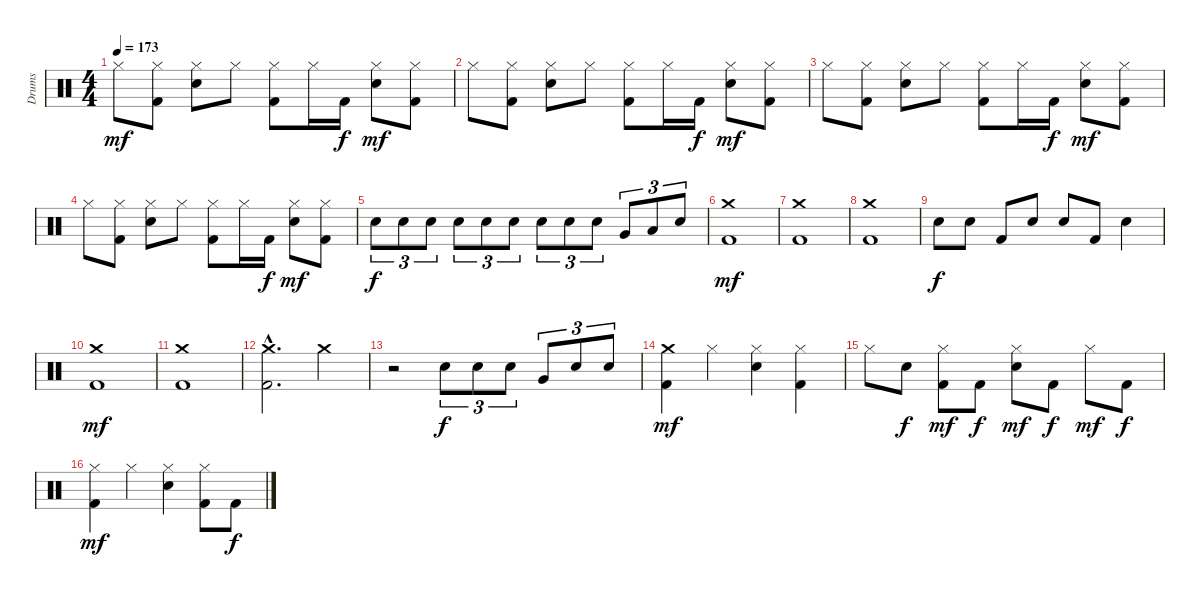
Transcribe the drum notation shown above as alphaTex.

\track ("Drums" "Drums") {instrument percussion}
\staff {score}
\articulation defaults
\ts (4 4)
\tempo 173
\clef neutral
\ks c "Hi-Hat (closed)".8{dy mf}
("Hi-Hat (closed)" "Kick (hit) 2").8 ("Hi-Hat (closed)" "Electric Snare (hit)").8 "Hi-Hat (closed)".8 ("Hi-Hat (closed)" "Kick (hit) 2").8 "Hi-Hat (closed)".16 "Kick (hit) 2".16{dy f} ("Hi-Hat (closed)" "Electric Snare (hit)").8{dy mf} ("Hi-Hat (closed)" "Kick (hit) 2").8 |
"Hi-Hat (closed)".8 ("Hi-Hat (closed)" "Kick (hit) 2").8 ("Hi-Hat (closed)" "Electric Snare (hit)").8 "Hi-Hat (closed)".8 ("Hi-Hat (closed)" "Kick (hit) 2").8 "Hi-Hat (closed)".16 "Kick (hit) 2".16{dy f} ("Hi-Hat (closed)" "Electric Snare (hit)").8{dy mf} ("Hi-Hat (closed)" "Kick (hit) 2").8 |
"Hi-Hat (closed)".8 ("Hi-Hat (closed)" "Kick (hit) 2").8 ("Hi-Hat (closed)" "Electric Snare (hit)").8 "Hi-Hat (closed)".8 ("Hi-Hat (closed)" "Kick (hit) 2").8 "Hi-Hat (closed)".16 "Kick (hit) 2".16{dy f} ("Hi-Hat (closed)" "Electric Snare (hit)").8{dy mf} ("Hi-Hat (closed)" "Kick (hit) 2").8 |
"Hi-Hat (closed)".8 ("Hi-Hat (closed)" "Kick (hit) 2").8 ("Hi-Hat (closed)" "Electric Snare (hit)").8 "Hi-Hat (closed)".8 ("Hi-Hat (closed)" "Kick (hit) 2").8 "Hi-Hat (closed)".16 "Kick (hit) 2".16{dy f} ("Hi-Hat (closed)" "Electric Snare (hit)").8{dy mf} ("Hi-Hat (closed)" "Kick (hit) 2").8 |
"Electric Snare (hit)".8{tu (3 2) dy f} "Electric Snare (hit)".8{tu (3 2)} "Electric Snare (hit)".8{tu (3 2)} "Electric Snare (hit)".8{tu (3 2)} "Electric Snare (hit)".8{tu (3 2)} "Electric Snare (hit)".8{tu (3 2)} "Electric Snare (hit)".8{tu (3 2)} "Electric Snare (hit)".8{tu (3 2)} "Electric Snare (hit)".8{tu (3 2)} "Very Low Tom (hit)".8{tu (3 2)} "Low Floor Tom (hit)".8{tu (3 2)} "Electric Snare (hit)".8{tu (3 2)} |
("Crash medium (hit)" "Kick (hit) 2").1{dy mf} |
("Crash medium (hit)" "Kick (hit) 2").1 |
("Crash medium (hit)" "Kick (hit) 2").1 |
"Electric Snare (hit)".8{dy f} "Electric Snare (hit)".8 "Kick (hit) 2".8 "Electric Snare (hit)".8 "Electric Snare (hit)".8 "Kick (hit) 2".8 "Electric Snare (hit)".4 |
("Crash medium (hit)" "Kick (hit) 2").1{dy mf} |
("Crash medium (hit)" "Kick (hit) 2").1 |
("Crash medium (hit)"{hac} "Kick (hit) 2"{hac}).2{d} "Crash medium (hit)".4 |
r.2 "Electric Snare (hit)".8{tu (3 2) dy f} "Electric Snare (hit)".8{tu (3 2)} "Electric Snare (hit)".8{tu (3 2)} "Very Low Tom (hit)".8{tu (3 2)} "Electric Snare (hit)".8{tu (3 2)} "Electric Snare (hit)".8{tu (3 2)} |
("Crash medium (hit)" "Kick (hit) 2").4{dy mf} "Hi-Hat (closed)".4 ("Hi-Hat (closed)" "Electric Snare (hit)").4 ("Hi-Hat (closed)" "Kick (hit) 2").4 |
"Hi-Hat (closed)".8 "Electric Snare (hit)".8{dy f} ("Hi-Hat (closed)" "Kick (hit) 2").8{dy mf} "Kick (hit) 2".8{dy f} ("Hi-Hat (closed)" "Electric Snare (hit)").8{dy mf} "Kick (hit) 2".8{dy f} "Hi-Hat (closed)".8{dy mf} "Kick (hit) 2".8{dy f} |
("Hi-Hat (closed)" "Kick (hit) 2").4{dy mf} "Hi-Hat (closed)".4 ("Hi-Hat (closed)" "Electric Snare (hit)").4 ("Hi-Hat (closed)" "Kick (hit) 2").8 "Kick (hit) 2".8{dy f}
